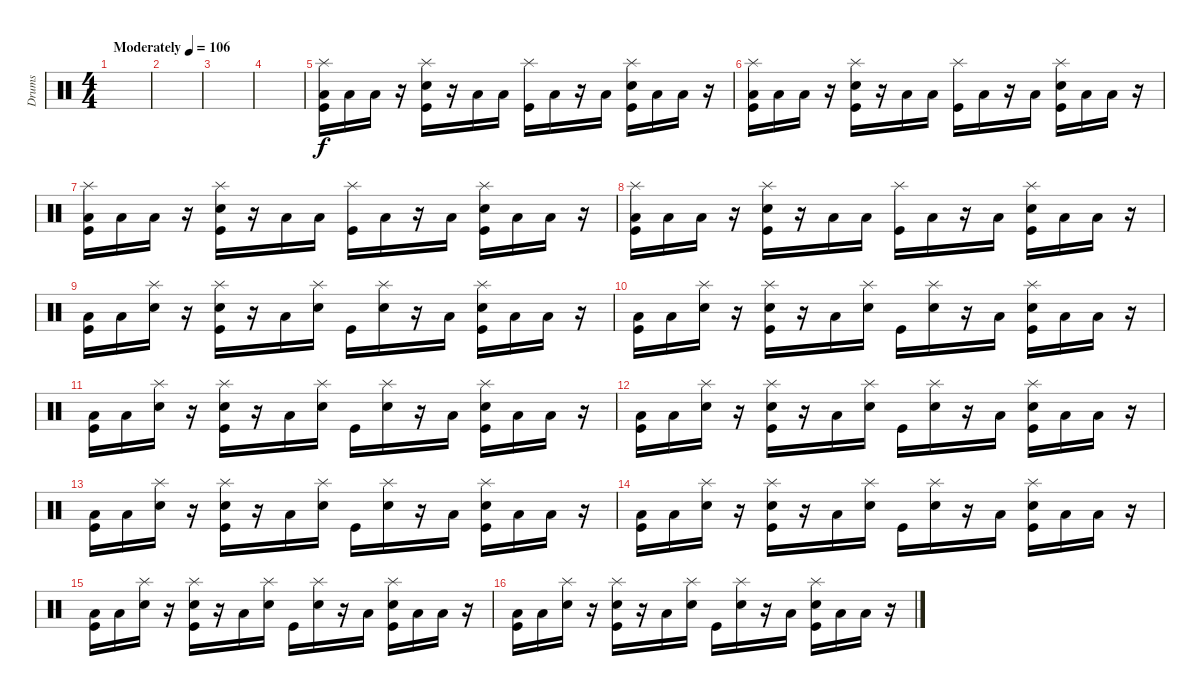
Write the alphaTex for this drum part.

\track ("Drums" "Drums") {instrument percussion}
\staff {score}
\articulation defaults
\ts (4 4)
\tempo (106 "Moderately")
\clef neutral
\ks c
|
|
|
|
("Splash (hit)" "Low Floor Tom (hit)" "Kick (hit)").16 "Low Floor Tom (hit)".16 "Low Floor Tom (hit)".16 r.16 ("Splash (hit)" "Snare (hit) 2" "Kick (hit)").16 r.16 "Low Floor Tom (hit)".16 "Low Floor Tom (hit)".16 ("Splash (hit)" "Kick (hit)").16 "Low Floor Tom (hit)".16 r.16 "Low Floor Tom (hit)".16 ("Splash (hit)" "Snare (hit) 2" "Kick (hit)").16 "Low Floor Tom (hit)".16 "Low Floor Tom (hit)".16 r.16 |
("Splash (hit)" "Low Floor Tom (hit)" "Kick (hit)").16 "Low Floor Tom (hit)".16 "Low Floor Tom (hit)".16 r.16 ("Splash (hit)" "Snare (hit) 2" "Kick (hit)").16 r.16 "Low Floor Tom (hit)".16 "Low Floor Tom (hit)".16 ("Splash (hit)" "Kick (hit)").16 "Low Floor Tom (hit)".16 r.16 "Low Floor Tom (hit)".16 ("Splash (hit)" "Snare (hit) 2" "Kick (hit)").16 "Low Floor Tom (hit)".16 "Low Floor Tom (hit)".16 r.16 |
("Splash (hit)" "Low Floor Tom (hit)" "Kick (hit)").16 "Low Floor Tom (hit)".16 "Low Floor Tom (hit)".16 r.16 ("Splash (hit)" "Snare (hit) 2" "Kick (hit)").16 r.16 "Low Floor Tom (hit)".16 "Low Floor Tom (hit)".16 ("Splash (hit)" "Kick (hit)").16 "Low Floor Tom (hit)".16 r.16 "Low Floor Tom (hit)".16 ("Splash (hit)" "Snare (hit) 2" "Kick (hit)").16 "Low Floor Tom (hit)".16 "Low Floor Tom (hit)".16 r.16 |
("Splash (hit)" "Low Floor Tom (hit)" "Kick (hit)").16 "Low Floor Tom (hit)".16 "Low Floor Tom (hit)".16 r.16 ("Splash (hit)" "Snare (hit) 2" "Kick (hit)").16 r.16 "Low Floor Tom (hit)".16 "Low Floor Tom (hit)".16 ("Splash (hit)" "Kick (hit)").16 "Low Floor Tom (hit)".16 r.16 "Low Floor Tom (hit)".16 ("Splash (hit)" "Snare (hit) 2" "Kick (hit)").16 "Low Floor Tom (hit)".16 "Low Floor Tom (hit)".16 r.16 |
("Low Floor Tom (hit)" "Kick (hit)").16 "Low Floor Tom (hit)".16 ("Splash (hit)" "Snare (hit) 2").16 r.16 ("Splash (hit)" "Snare (hit) 2" "Kick (hit)").16 r.16 "Low Floor Tom (hit)".16 ("Splash (hit)" "Snare (hit) 2").16 "Kick (hit)".16 ("Splash (hit)" "Snare (hit) 2").16 r.16 "Low Floor Tom (hit)".16 ("Splash (hit)" "Snare (hit) 2" "Kick (hit)").16 "Low Floor Tom (hit)".16 "Low Floor Tom (hit)".16 r.16 |
("Low Floor Tom (hit)" "Kick (hit)").16 "Low Floor Tom (hit)".16 ("Splash (hit)" "Snare (hit) 2").16 r.16 ("Splash (hit)" "Snare (hit) 2" "Kick (hit)").16 r.16 "Low Floor Tom (hit)".16 ("Splash (hit)" "Snare (hit) 2").16 "Kick (hit)".16 ("Splash (hit)" "Snare (hit) 2").16 r.16 "Low Floor Tom (hit)".16 ("Splash (hit)" "Snare (hit) 2" "Kick (hit)").16 "Low Floor Tom (hit)".16 "Low Floor Tom (hit)".16 r.16 |
("Low Floor Tom (hit)" "Kick (hit)").16 "Low Floor Tom (hit)".16 ("Splash (hit)" "Snare (hit) 2").16 r.16 ("Splash (hit)" "Snare (hit) 2" "Kick (hit)").16 r.16 "Low Floor Tom (hit)".16 ("Splash (hit)" "Snare (hit) 2").16 "Kick (hit)".16 ("Splash (hit)" "Snare (hit) 2").16 r.16 "Low Floor Tom (hit)".16 ("Splash (hit)" "Snare (hit) 2" "Kick (hit)").16 "Low Floor Tom (hit)".16 "Low Floor Tom (hit)".16 r.16 |
("Low Floor Tom (hit)" "Kick (hit)").16 "Low Floor Tom (hit)".16 ("Splash (hit)" "Snare (hit) 2").16 r.16 ("Splash (hit)" "Snare (hit) 2" "Kick (hit)").16 r.16 "Low Floor Tom (hit)".16 ("Splash (hit)" "Snare (hit) 2").16 "Kick (hit)".16 ("Splash (hit)" "Snare (hit) 2").16 r.16 "Low Floor Tom (hit)".16 ("Splash (hit)" "Snare (hit) 2" "Kick (hit)").16 "Low Floor Tom (hit)".16 "Low Floor Tom (hit)".16 r.16 |
("Low Floor Tom (hit)" "Kick (hit)").16 "Low Floor Tom (hit)".16 ("Splash (hit)" "Snare (hit) 2").16 r.16 ("Splash (hit)" "Snare (hit) 2" "Kick (hit)").16 r.16 "Low Floor Tom (hit)".16 ("Splash (hit)" "Snare (hit) 2").16 "Kick (hit)".16 ("Splash (hit)" "Snare (hit) 2").16 r.16 "Low Floor Tom (hit)".16 ("Splash (hit)" "Snare (hit) 2" "Kick (hit)").16 "Low Floor Tom (hit)".16 "Low Floor Tom (hit)".16 r.16 |
("Low Floor Tom (hit)" "Kick (hit)").16 "Low Floor Tom (hit)".16 ("Splash (hit)" "Snare (hit) 2").16 r.16 ("Splash (hit)" "Snare (hit) 2" "Kick (hit)").16 r.16 "Low Floor Tom (hit)".16 ("Splash (hit)" "Snare (hit) 2").16 "Kick (hit)".16 ("Splash (hit)" "Snare (hit) 2").16 r.16 "Low Floor Tom (hit)".16 ("Splash (hit)" "Snare (hit) 2" "Kick (hit)").16 "Low Floor Tom (hit)".16 "Low Floor Tom (hit)".16 r.16 |
("Low Floor Tom (hit)" "Kick (hit)").16 "Low Floor Tom (hit)".16 ("Splash (hit)" "Snare (hit) 2").16 r.16 ("Splash (hit)" "Snare (hit) 2" "Kick (hit)").16 r.16 "Low Floor Tom (hit)".16 ("Splash (hit)" "Snare (hit) 2").16 "Kick (hit)".16 ("Splash (hit)" "Snare (hit) 2").16 r.16 "Low Floor Tom (hit)".16 ("Splash (hit)" "Snare (hit) 2" "Kick (hit)").16 "Low Floor Tom (hit)".16 "Low Floor Tom (hit)".16 r.16 |
("Low Floor Tom (hit)" "Kick (hit)").16 "Low Floor Tom (hit)".16 ("Splash (hit)" "Snare (hit) 2").16 r.16 ("Splash (hit)" "Snare (hit) 2" "Kick (hit)").16 r.16 "Low Floor Tom (hit)".16 ("Splash (hit)" "Snare (hit) 2").16 "Kick (hit)".16 ("Splash (hit)" "Snare (hit) 2").16 r.16 "Low Floor Tom (hit)".16 ("Splash (hit)" "Snare (hit) 2" "Kick (hit)").16 "Low Floor Tom (hit)".16 "Low Floor Tom (hit)".16 r.16
